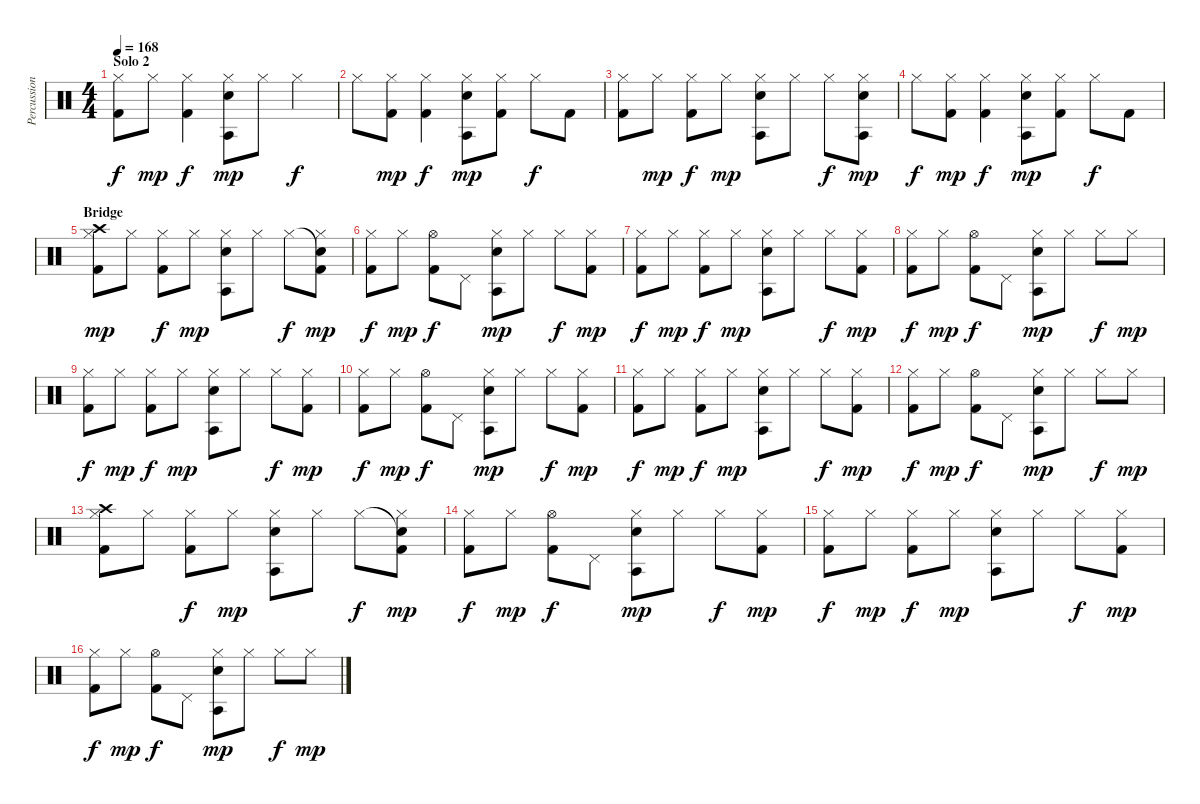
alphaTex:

\track ("Percussion" "Percussion") {instrument percussion}
\staff {score}
\articulation defaults
\ts (4 4)
\section ("" "Solo 2")
\tempo 168
\clef neutral
\ks c
("Hi-Hat (closed)" "Kick (hit) 2").8{dy f} "Hi-Hat (closed)".8{dy mp} ("Hi-Hat (closed)" "Kick (hit) 2").4{dy f} ("Hi-Hat (closed)" "Agogo tow (hit)" "Electric Snare (hit)").8{dy mp} "Hi-Hat (closed)".8 "Hi-Hat (closed)".4{dy f} |
"Hi-Hat (closed)".8 ("Hi-Hat (closed)" "Kick (hit) 2").8{dy mp} ("Hi-Hat (closed)" "Kick (hit) 2").4{dy f} ("Hi-Hat (closed)" "Agogo tow (hit)" "Electric Snare (hit)").8{dy mp} ("Hi-Hat (closed)" "Kick (hit) 2").8 "Hi-Hat (closed)".8{dy f} "Kick (hit) 2".8 |
("Hi-Hat (closed)" "Kick (hit) 2").8 "Hi-Hat (closed)".8{dy mp} ("Hi-Hat (closed)" "Kick (hit) 2").8{dy f} "Hi-Hat (closed)".8{dy mp} ("Hi-Hat (closed)" "Agogo tow (hit)" "Electric Snare (hit)").8 "Hi-Hat (closed)".8 "Hi-Hat (closed)".8{dy f} ("Hi-Hat (closed)" "Agogo tow (hit)" "Electric Snare (hit)").8{dy mp} |
"Hi-Hat (closed)".8{dy f} ("Hi-Hat (closed)" "Kick (hit) 2").8{dy mp} ("Hi-Hat (closed)" "Kick (hit) 2").4{dy f} ("Hi-Hat (closed)" "Agogo tow (hit)" "Electric Snare (hit)").8{dy mp} ("Hi-Hat (closed)" "Kick (hit) 2").8 "Hi-Hat (closed)".8{dy f} "Kick (hit) 2".8 |
\section ("" "Bridge")
("Crash high (hit)" "Hi-Hat (closed)" "Kick (hit) 2").8{dy mp} "Hi-Hat (closed)".8 ("Hi-Hat (closed)" "Kick (hit) 2").8{dy f} "Hi-Hat (closed)".8{dy mp} ("Hi-Hat (closed)" "Agogo tow (hit)" "Electric Snare (hit)").8 "Hi-Hat (closed)".8 "Hi-Hat (closed)".8{dy f} ("Snare (hit)"{t} "Hi-Hat (closed)" "Kick (hit) 2").8{dy mp} |
("Hi-Hat (closed)" "Kick (hit) 2").8{dy f} "Hi-Hat (closed)".8{dy mp} ("Hi-Hat (open)" "Kick (hit) 2").8{dy f} "Pedal Hi-Hat (hit)".8 ("Hi-Hat (closed)" "Agogo tow (hit)" "Electric Snare (hit)").8{dy mp} "Hi-Hat (closed)".8 "Hi-Hat (closed)".8{dy f} ("Hi-Hat (closed)" "Kick (hit) 2").8{dy mp} |
("Hi-Hat (closed)" "Kick (hit) 2").8{dy f} "Hi-Hat (closed)".8{dy mp} ("Hi-Hat (closed)" "Kick (hit) 2").8{dy f} "Hi-Hat (closed)".8{dy mp} ("Hi-Hat (closed)" "Agogo tow (hit)" "Electric Snare (hit)").8 "Hi-Hat (closed)".8 "Hi-Hat (closed)".8{dy f} ("Hi-Hat (closed)" "Kick (hit) 2").8{dy mp} |
("Hi-Hat (closed)" "Kick (hit) 2").8{dy f} "Hi-Hat (closed)".8{dy mp} ("Hi-Hat (open)" "Kick (hit) 2").8{dy f} "Pedal Hi-Hat (hit)".8 ("Hi-Hat (closed)" "Agogo tow (hit)" "Electric Snare (hit)").8{dy mp} "Hi-Hat (closed)".8 "Hi-Hat (closed)".8{dy f} "Hi-Hat (closed)".8{dy mp} |
("Hi-Hat (closed)" "Kick (hit) 2").8{dy f} "Hi-Hat (closed)".8{dy mp} ("Hi-Hat (closed)" "Kick (hit) 2").8{dy f} "Hi-Hat (closed)".8{dy mp} ("Hi-Hat (closed)" "Agogo tow (hit)" "Electric Snare (hit)").8 "Hi-Hat (closed)".8 "Hi-Hat (closed)".8{dy f} ("Hi-Hat (closed)" "Kick (hit) 2").8{dy mp} |
("Hi-Hat (closed)" "Kick (hit) 2").8{dy f} "Hi-Hat (closed)".8{dy mp} ("Hi-Hat (open)" "Kick (hit) 2").8{dy f} "Pedal Hi-Hat (hit)".8 ("Hi-Hat (closed)" "Agogo tow (hit)" "Electric Snare (hit)").8{dy mp} "Hi-Hat (closed)".8 "Hi-Hat (closed)".8{dy f} ("Hi-Hat (closed)" "Kick (hit) 2").8{dy mp} |
("Hi-Hat (closed)" "Kick (hit) 2").8{dy f} "Hi-Hat (closed)".8{dy mp} ("Hi-Hat (closed)" "Kick (hit) 2").8{dy f} "Hi-Hat (closed)".8{dy mp} ("Hi-Hat (closed)" "Agogo tow (hit)" "Electric Snare (hit)").8 "Hi-Hat (closed)".8 "Hi-Hat (closed)".8{dy f} ("Hi-Hat (closed)" "Kick (hit) 2").8{dy mp} |
("Hi-Hat (closed)" "Kick (hit) 2").8{dy f} "Hi-Hat (closed)".8{dy mp} ("Hi-Hat (open)" "Kick (hit) 2").8{dy f} "Pedal Hi-Hat (hit)".8 ("Hi-Hat (closed)" "Agogo tow (hit)" "Electric Snare (hit)").8{dy mp} "Hi-Hat (closed)".8 "Hi-Hat (closed)".8{dy f} "Hi-Hat (closed)".8{dy mp} |
("Crash high (hit)" "Hi-Hat (closed)" "Kick (hit) 2").8 "Hi-Hat (closed)".8 ("Hi-Hat (closed)" "Kick (hit) 2").8{dy f} "Hi-Hat (closed)".8{dy mp} ("Hi-Hat (closed)" "Agogo tow (hit)" "Electric Snare (hit)").8 "Hi-Hat (closed)".8 "Hi-Hat (closed)".8{dy f} ("Snare (hit)"{t} "Hi-Hat (closed)" "Kick (hit) 2").8{dy mp} |
("Hi-Hat (closed)" "Kick (hit) 2").8{dy f} "Hi-Hat (closed)".8{dy mp} ("Hi-Hat (open)" "Kick (hit) 2").8{dy f} "Pedal Hi-Hat (hit)".8 ("Hi-Hat (closed)" "Agogo tow (hit)" "Electric Snare (hit)").8{dy mp} "Hi-Hat (closed)".8 "Hi-Hat (closed)".8{dy f} ("Hi-Hat (closed)" "Kick (hit) 2").8{dy mp} |
("Hi-Hat (closed)" "Kick (hit) 2").8{dy f} "Hi-Hat (closed)".8{dy mp} ("Hi-Hat (closed)" "Kick (hit) 2").8{dy f} "Hi-Hat (closed)".8{dy mp} ("Hi-Hat (closed)" "Agogo tow (hit)" "Electric Snare (hit)").8 "Hi-Hat (closed)".8 "Hi-Hat (closed)".8{dy f} ("Hi-Hat (closed)" "Kick (hit) 2").8{dy mp} |
("Hi-Hat (closed)" "Kick (hit) 2").8{dy f} "Hi-Hat (closed)".8{dy mp} ("Hi-Hat (open)" "Kick (hit) 2").8{dy f} "Pedal Hi-Hat (hit)".8 ("Hi-Hat (closed)" "Agogo tow (hit)" "Electric Snare (hit)").8{dy mp} "Hi-Hat (closed)".8 "Hi-Hat (closed)".8{dy f} "Hi-Hat (closed)".8{dy mp}
